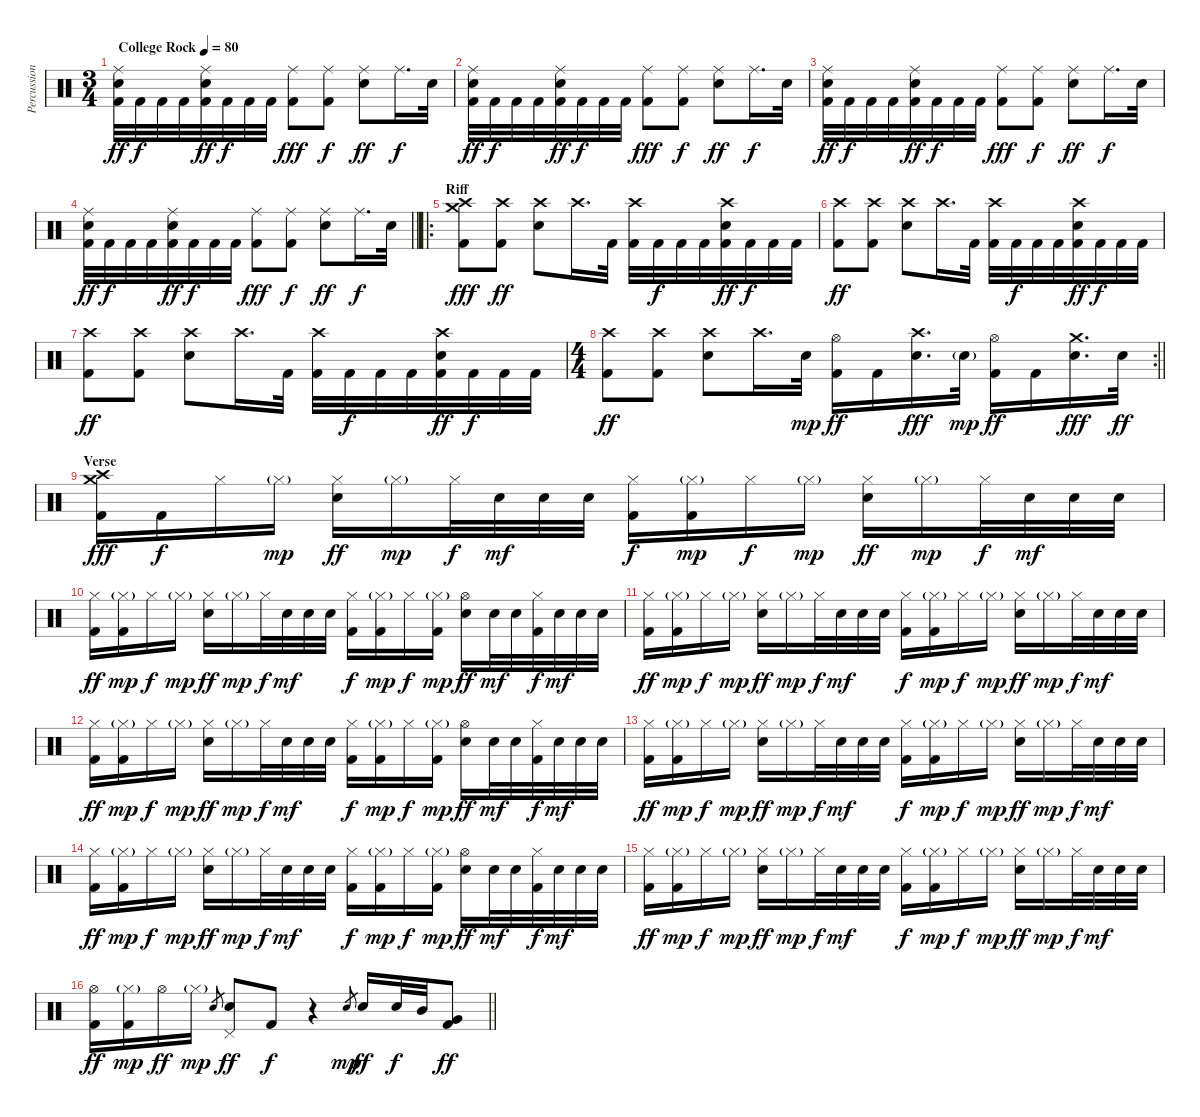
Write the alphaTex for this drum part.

\track ("Percussion" "Percussion") {instrument percussion}
\staff {score}
\articulation defaults
\ts (3 4)
\tempo (80 "College Rock")
\clef neutral
\ks c
("Ride (middle)" "Electric Snare (hit)" "Kick (hit) 2").32{dy ff} "Kick (hit) 2".32{dy f} "Kick (hit) 2".32 "Kick (hit) 2".32 ("Ride (middle)" "Electric Snare (hit)" "Kick (hit) 2").32{dy ff} "Kick (hit) 2".32{dy f} "Kick (hit) 2".32 "Kick (hit) 2".32 ("Ride (middle)" "Kick (hit) 2").8{dy fff} ("Ride (middle)" "Kick (hit) 2").8{dy f} ("Ride (middle)" "Electric Snare (hit)").8{dy ff} "Ride (middle)".16{d dy f} "Electric Snare (hit)".32 |
("Ride (middle)" "Electric Snare (hit)" "Kick (hit) 2").32{dy ff} "Kick (hit) 2".32{dy f} "Kick (hit) 2".32 "Kick (hit) 2".32 ("Ride (middle)" "Electric Snare (hit)" "Kick (hit) 2").32{dy ff} "Kick (hit) 2".32{dy f} "Kick (hit) 2".32 "Kick (hit) 2".32 ("Ride (middle)" "Kick (hit) 2").8{dy fff} ("Ride (middle)" "Kick (hit) 2").8{dy f} ("Ride (middle)" "Electric Snare (hit)").8{dy ff} "Ride (middle)".16{d dy f} "Electric Snare (hit)".32 |
("Ride (middle)" "Electric Snare (hit)" "Kick (hit) 2").32{dy ff} "Kick (hit) 2".32{dy f} "Kick (hit) 2".32 "Kick (hit) 2".32 ("Ride (middle)" "Electric Snare (hit)" "Kick (hit) 2").32{dy ff} "Kick (hit) 2".32{dy f} "Kick (hit) 2".32 "Kick (hit) 2".32 ("Ride (middle)" "Kick (hit) 2").8{dy fff} ("Ride (middle)" "Kick (hit) 2").8{dy f} ("Ride (middle)" "Electric Snare (hit)").8{dy ff} "Ride (middle)".16{d dy f} "Electric Snare (hit)".32 |
\barLineRight lightlight
("Ride (middle)" "Electric Snare (hit)" "Kick (hit) 2").32{dy ff} "Kick (hit) 2".32{dy f} "Kick (hit) 2".32 "Kick (hit) 2".32 ("Ride (middle)" "Electric Snare (hit)" "Kick (hit) 2").32{dy ff} "Kick (hit) 2".32{dy f} "Kick (hit) 2".32 "Kick (hit) 2".32 ("Ride (middle)" "Kick (hit) 2").8{dy fff} ("Ride (middle)" "Kick (hit) 2").8{dy f} ("Ride (middle)" "Electric Snare (hit)").8{dy ff} "Ride (middle)".16{d dy f} "Electric Snare (hit)".32 |
\ro
\section ("" "Riff")
("Crash high (hit)" "Crash medium (hit)" "Kick (hit) 2").8{dy fff} ("Crash high (hit)" "Kick (hit) 2").8{dy ff} ("Crash high (hit)" "Electric Snare (hit)").8 "Crash high (hit)".16{d} "Kick (hit) 2".32 ("Crash high (hit)" "Kick (hit) 2").32 "Kick (hit) 2".32{dy f} "Kick (hit) 2".32 "Kick (hit) 2".32 ("Crash high (hit)" "Electric Snare (hit)" "Kick (hit) 2").32{dy ff} "Kick (hit) 2".32{dy f} "Kick (hit) 2".32 "Kick (hit) 2".32 |
("Crash high (hit)" "Kick (hit) 2").8{dy ff} ("Crash high (hit)" "Kick (hit) 2").8 ("Crash high (hit)" "Electric Snare (hit)").8 "Crash high (hit)".16{d} "Kick (hit) 2".32 ("Crash high (hit)" "Kick (hit) 2").32 "Kick (hit) 2".32{dy f} "Kick (hit) 2".32 "Kick (hit) 2".32 ("Crash high (hit)" "Electric Snare (hit)" "Kick (hit) 2").32{dy ff} "Kick (hit) 2".32{dy f} "Kick (hit) 2".32 "Kick (hit) 2".32 |
("Crash high (hit)" "Kick (hit) 2").8{dy ff} ("Crash high (hit)" "Kick (hit) 2").8 ("Crash high (hit)" "Electric Snare (hit)").8 "Crash high (hit)".16{d} "Kick (hit) 2".32 ("Crash high (hit)" "Kick (hit) 2").32 "Kick (hit) 2".32{dy f} "Kick (hit) 2".32 "Kick (hit) 2".32 ("Crash high (hit)" "Electric Snare (hit)" "Kick (hit) 2").32{dy ff} "Kick (hit) 2".32{dy f} "Kick (hit) 2".32 "Kick (hit) 2".32 |
\rc 2
\ts (4 4)
\barLineRight lightlight
("Crash high (hit)" "Kick (hit) 2").8{dy ff} ("Crash high (hit)" "Kick (hit) 2").8 ("Crash high (hit)" "Electric Snare (hit)").8 "Crash high (hit)".16{d} "Electric Snare (hit)".32{dy mp} ("Hi-Hat (open)" "Kick (hit) 2").16{dy ff} "Kick (hit) 2".16 ("Crash high (hit)" "Electric Snare (hit)").16{d dy fff} "Electric Snare (hit)"{g}.32{dy mp} ("Hi-Hat (open)" "Kick (hit) 2").16{dy ff} "Kick (hit) 2".16 ("Crash medium (hit)" "Electric Snare (hit)").16{d dy fff} "Electric Snare (hit)".32{dy ff} |
\section ("" "Verse")
("Crash high (hit)" "Crash medium (hit)" "Kick (hit) 2").16{dy fff} "Kick (hit) 2".16{dy f} "Hi-Hat (closed)".16 "Hi-Hat (closed)"{g}.16{dy mp} ("Hi-Hat (closed)" "Electric Snare (hit)").16{dy ff} "Hi-Hat (closed)"{g}.16{dy mp} "Hi-Hat (closed)".32{dy f} "Electric Snare (hit)".32{dy mf} "Electric Snare (hit)".32 "Electric Snare (hit)".32 ("Hi-Hat (closed)" "Kick (hit) 2").16{dy f} ("Hi-Hat (closed)"{g} "Kick (hit) 2").16{dy mp} "Hi-Hat (closed)".16{dy f} "Hi-Hat (closed)"{g}.16{dy mp} ("Hi-Hat (closed)" "Electric Snare (hit)").16{dy ff} "Hi-Hat (closed)"{g}.16{dy mp} "Hi-Hat (closed)".32{dy f} "Electric Snare (hit)".32{dy mf} "Electric Snare (hit)".32 "Electric Snare (hit)".32 |
("Hi-Hat (closed)" "Kick (hit) 2").16{dy ff} ("Hi-Hat (closed)"{g} "Kick (hit) 2").16{dy mp} "Hi-Hat (closed)".16{dy f} "Hi-Hat (closed)"{g}.16{dy mp} ("Hi-Hat (closed)" "Electric Snare (hit)").16{dy ff} "Hi-Hat (closed)"{g}.16{dy mp} "Hi-Hat (closed)".32{dy f} "Electric Snare (hit)".32{dy mf} "Electric Snare (hit)".32 "Electric Snare (hit)".32 ("Hi-Hat (closed)" "Kick (hit) 2").16{dy f} ("Hi-Hat (closed)"{g} "Kick (hit) 2").16{dy mp} "Hi-Hat (closed)".16{dy f} ("Hi-Hat (closed)"{g} "Kick (hit) 2").16{dy mp} ("Hi-Hat (open)" "Electric Snare (hit)").16{dy ff} "Electric Snare (hit)".32{dy mf} "Electric Snare (hit)".32 ("Hi-Hat (closed)" "Kick (hit) 2").32{dy f} "Electric Snare (hit)".32{dy mf} "Electric Snare (hit)".32 "Electric Snare (hit)".32 |
("Hi-Hat (closed)" "Kick (hit) 2").16{dy ff} ("Hi-Hat (closed)"{g} "Kick (hit) 2").16{dy mp} "Hi-Hat (closed)".16{dy f} "Hi-Hat (closed)"{g}.16{dy mp} ("Hi-Hat (closed)" "Electric Snare (hit)").16{dy ff} "Hi-Hat (closed)"{g}.16{dy mp} "Hi-Hat (closed)".32{dy f} "Electric Snare (hit)".32{dy mf} "Electric Snare (hit)".32 "Electric Snare (hit)".32 ("Hi-Hat (closed)" "Kick (hit) 2").16{dy f} ("Hi-Hat (closed)"{g} "Kick (hit) 2").16{dy mp} "Hi-Hat (closed)".16{dy f} "Hi-Hat (closed)"{g}.16{dy mp} ("Hi-Hat (closed)" "Electric Snare (hit)").16{dy ff} "Hi-Hat (closed)"{g}.16{dy mp} "Hi-Hat (closed)".32{dy f} "Electric Snare (hit)".32{dy mf} "Electric Snare (hit)".32 "Electric Snare (hit)".32 |
("Hi-Hat (closed)" "Kick (hit) 2").16{dy ff} ("Hi-Hat (closed)"{g} "Kick (hit) 2").16{dy mp} "Hi-Hat (closed)".16{dy f} "Hi-Hat (closed)"{g}.16{dy mp} ("Hi-Hat (closed)" "Electric Snare (hit)").16{dy ff} "Hi-Hat (closed)"{g}.16{dy mp} "Hi-Hat (closed)".32{dy f} "Electric Snare (hit)".32{dy mf} "Electric Snare (hit)".32 "Electric Snare (hit)".32 ("Hi-Hat (closed)" "Kick (hit) 2").16{dy f} ("Hi-Hat (closed)"{g} "Kick (hit) 2").16{dy mp} "Hi-Hat (closed)".16{dy f} ("Hi-Hat (closed)"{g} "Kick (hit) 2").16{dy mp} ("Hi-Hat (open)" "Electric Snare (hit)").16{dy ff} "Electric Snare (hit)".32{dy mf} "Electric Snare (hit)".32 ("Hi-Hat (closed)" "Kick (hit) 2").32{dy f} "Electric Snare (hit)".32{dy mf} "Electric Snare (hit)".32 "Electric Snare (hit)".32 |
("Hi-Hat (closed)" "Kick (hit) 2").16{dy ff} ("Hi-Hat (closed)"{g} "Kick (hit) 2").16{dy mp} "Hi-Hat (closed)".16{dy f} "Hi-Hat (closed)"{g}.16{dy mp} ("Hi-Hat (closed)" "Electric Snare (hit)").16{dy ff} "Hi-Hat (closed)"{g}.16{dy mp} "Hi-Hat (closed)".32{dy f} "Electric Snare (hit)".32{dy mf} "Electric Snare (hit)".32 "Electric Snare (hit)".32 ("Hi-Hat (closed)" "Kick (hit) 2").16{dy f} ("Hi-Hat (closed)"{g} "Kick (hit) 2").16{dy mp} "Hi-Hat (closed)".16{dy f} "Hi-Hat (closed)"{g}.16{dy mp} ("Hi-Hat (closed)" "Electric Snare (hit)").16{dy ff} "Hi-Hat (closed)"{g}.16{dy mp} "Hi-Hat (closed)".32{dy f} "Electric Snare (hit)".32{dy mf} "Electric Snare (hit)".32 "Electric Snare (hit)".32 |
("Hi-Hat (closed)" "Kick (hit) 2").16{dy ff} ("Hi-Hat (closed)"{g} "Kick (hit) 2").16{dy mp} "Hi-Hat (closed)".16{dy f} "Hi-Hat (closed)"{g}.16{dy mp} ("Hi-Hat (closed)" "Electric Snare (hit)").16{dy ff} "Hi-Hat (closed)"{g}.16{dy mp} "Hi-Hat (closed)".32{dy f} "Electric Snare (hit)".32{dy mf} "Electric Snare (hit)".32 "Electric Snare (hit)".32 ("Hi-Hat (closed)" "Kick (hit) 2").16{dy f} ("Hi-Hat (closed)"{g} "Kick (hit) 2").16{dy mp} "Hi-Hat (closed)".16{dy f} ("Hi-Hat (closed)"{g} "Kick (hit) 2").16{dy mp} ("Hi-Hat (open)" "Electric Snare (hit)").16{dy ff} "Electric Snare (hit)".32{dy mf} "Electric Snare (hit)".32 ("Hi-Hat (closed)" "Kick (hit) 2").32{dy f} "Electric Snare (hit)".32{dy mf} "Electric Snare (hit)".32 "Electric Snare (hit)".32 |
("Hi-Hat (closed)" "Kick (hit) 2").16{dy ff} ("Hi-Hat (closed)"{g} "Kick (hit) 2").16{dy mp} "Hi-Hat (closed)".16{dy f} "Hi-Hat (closed)"{g}.16{dy mp} ("Hi-Hat (closed)" "Electric Snare (hit)").16{dy ff} "Hi-Hat (closed)"{g}.16{dy mp} "Hi-Hat (closed)".32{dy f} "Electric Snare (hit)".32{dy mf} "Electric Snare (hit)".32 "Electric Snare (hit)".32 ("Hi-Hat (closed)" "Kick (hit) 2").16{dy f} ("Hi-Hat (closed)"{g} "Kick (hit) 2").16{dy mp} "Hi-Hat (closed)".16{dy f} "Hi-Hat (closed)"{g}.16{dy mp} ("Hi-Hat (closed)" "Electric Snare (hit)").16{dy ff} "Hi-Hat (closed)"{g}.16{dy mp} "Hi-Hat (closed)".32{dy f} "Electric Snare (hit)".32{dy mf} "Electric Snare (hit)".32 "Electric Snare (hit)".32 |
\barLineRight lightlight
("Hi-Hat (open)" "Kick (hit) 2").16{dy ff} ("Hi-Hat (closed)"{g} "Kick (hit) 2").16{dy mp} "Hi-Hat (open)".16{dy ff} "Hi-Hat (closed)"{g}.16{dy mp} "Electric Snare (hit)".8{gr} ("Electric Snare (hit)" "Pedal Hi-Hat (hit)").8{dy ff} "Kick (hit) 2".8{dy f} r.4 "Electric Snare (hit)".8{gr dy mp} "Electric Snare (hit)".16{dy ff} "Electric Snare (hit)".32{dy f} "Mid Tom (hit)".32 ("Very Low Tom (hit)" "Kick (hit) 2").8{dy ff}
